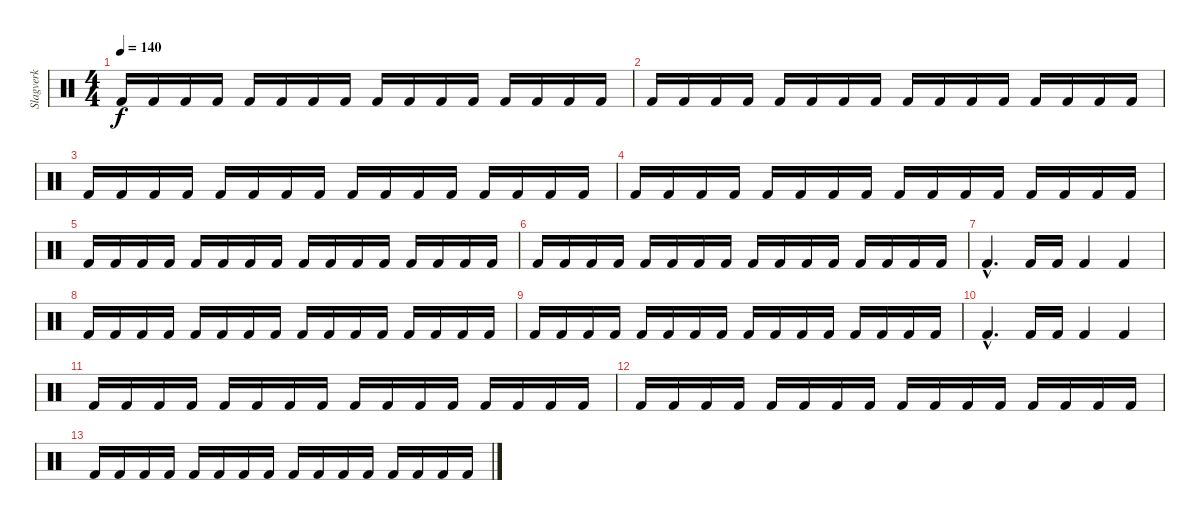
\track ("Slagverk" "Slagverk") {instrument percussion}
\staff {score}
\articulation defaults
\ts (4 4)
\tempo 140
\clef neutral
\ks c "Kick (hit) 2".16{dy f} "Kick (hit) 2".16 "Kick (hit) 2".16 "Kick (hit) 2".16 "Kick (hit) 2".16 "Kick (hit) 2".16 "Kick (hit) 2".16 "Kick (hit) 2".16 "Kick (hit) 2".16 "Kick (hit) 2".16 "Kick (hit) 2".16 "Kick (hit) 2".16 "Kick (hit) 2".16 "Kick (hit) 2".16 "Kick (hit) 2".16 "Kick (hit) 2".16
|
"Kick (hit) 2".16 "Kick (hit) 2".16 "Kick (hit) 2".16 "Kick (hit) 2".16 "Kick (hit) 2".16 "Kick (hit) 2".16 "Kick (hit) 2".16 "Kick (hit) 2".16 "Kick (hit) 2".16 "Kick (hit) 2".16 "Kick (hit) 2".16 "Kick (hit) 2".16 "Kick (hit) 2".16 "Kick (hit) 2".16 "Kick (hit) 2".16 "Kick (hit) 2".16 |
"Kick (hit) 2".16 "Kick (hit) 2".16 "Kick (hit) 2".16 "Kick (hit) 2".16 "Kick (hit) 2".16 "Kick (hit) 2".16 "Kick (hit) 2".16 "Kick (hit) 2".16 "Kick (hit) 2".16 "Kick (hit) 2".16 "Kick (hit) 2".16 "Kick (hit) 2".16 "Kick (hit) 2".16 "Kick (hit) 2".16 "Kick (hit) 2".16 "Kick (hit) 2".16 |
"Kick (hit) 2".16 "Kick (hit) 2".16 "Kick (hit) 2".16 "Kick (hit) 2".16 "Kick (hit) 2".16 "Kick (hit) 2".16 "Kick (hit) 2".16 "Kick (hit) 2".16 "Kick (hit) 2".16 "Kick (hit) 2".16 "Kick (hit) 2".16 "Kick (hit) 2".16 "Kick (hit) 2".16 "Kick (hit) 2".16 "Kick (hit) 2".16 "Kick (hit) 2".16 |
"Kick (hit) 2".16 "Kick (hit) 2".16 "Kick (hit) 2".16 "Kick (hit) 2".16 "Kick (hit) 2".16 "Kick (hit) 2".16 "Kick (hit) 2".16 "Kick (hit) 2".16 "Kick (hit) 2".16 "Kick (hit) 2".16 "Kick (hit) 2".16 "Kick (hit) 2".16 "Kick (hit) 2".16 "Kick (hit) 2".16 "Kick (hit) 2".16 "Kick (hit) 2".16 |
"Kick (hit) 2".16 "Kick (hit) 2".16 "Kick (hit) 2".16 "Kick (hit) 2".16 "Kick (hit) 2".16 "Kick (hit) 2".16 "Kick (hit) 2".16 "Kick (hit) 2".16 "Kick (hit) 2".16 "Kick (hit) 2".16 "Kick (hit) 2".16 "Kick (hit) 2".16 "Kick (hit) 2".16 "Kick (hit) 2".16 "Kick (hit) 2".16 "Kick (hit) 2".16 |
"Kick (hit) 2"{hac}.4{d} "Kick (hit) 2".16 "Kick (hit) 2".16 "Kick (hit) 2".4 "Kick (hit) 2".4 |
"Kick (hit) 2".16 "Kick (hit) 2".16 "Kick (hit) 2".16 "Kick (hit) 2".16 "Kick (hit) 2".16 "Kick (hit) 2".16 "Kick (hit) 2".16 "Kick (hit) 2".16 "Kick (hit) 2".16 "Kick (hit) 2".16 "Kick (hit) 2".16 "Kick (hit) 2".16 "Kick (hit) 2".16 "Kick (hit) 2".16 "Kick (hit) 2".16 "Kick (hit) 2".16 |
"Kick (hit) 2".16 "Kick (hit) 2".16 "Kick (hit) 2".16 "Kick (hit) 2".16 "Kick (hit) 2".16 "Kick (hit) 2".16 "Kick (hit) 2".16 "Kick (hit) 2".16 "Kick (hit) 2".16 "Kick (hit) 2".16 "Kick (hit) 2".16 "Kick (hit) 2".16 "Kick (hit) 2".16 "Kick (hit) 2".16 "Kick (hit) 2".16 "Kick (hit) 2".16 |
"Kick (hit) 2"{hac}.4{d} "Kick (hit) 2".16 "Kick (hit) 2".16 "Kick (hit) 2".4 "Kick (hit) 2".4 |
"Kick (hit) 2".16 "Kick (hit) 2".16 "Kick (hit) 2".16 "Kick (hit) 2".16 "Kick (hit) 2".16 "Kick (hit) 2".16 "Kick (hit) 2".16 "Kick (hit) 2".16 "Kick (hit) 2".16 "Kick (hit) 2".16 "Kick (hit) 2".16 "Kick (hit) 2".16 "Kick (hit) 2".16 "Kick (hit) 2".16 "Kick (hit) 2".16 "Kick (hit) 2".16 |
"Kick (hit) 2".16 "Kick (hit) 2".16 "Kick (hit) 2".16 "Kick (hit) 2".16 "Kick (hit) 2".16 "Kick (hit) 2".16 "Kick (hit) 2".16 "Kick (hit) 2".16 "Kick (hit) 2".16 "Kick (hit) 2".16 "Kick (hit) 2".16 "Kick (hit) 2".16 "Kick (hit) 2".16 "Kick (hit) 2".16 "Kick (hit) 2".16 "Kick (hit) 2".16 |
"Kick (hit) 2".16 "Kick (hit) 2".16 "Kick (hit) 2".16 "Kick (hit) 2".16 "Kick (hit) 2".16 "Kick (hit) 2".16 "Kick (hit) 2".16 "Kick (hit) 2".16 "Kick (hit) 2".16 "Kick (hit) 2".16 "Kick (hit) 2".16 "Kick (hit) 2".16 "Kick (hit) 2".16 "Kick (hit) 2".16 "Kick (hit) 2".16 "Kick (hit) 2".16
